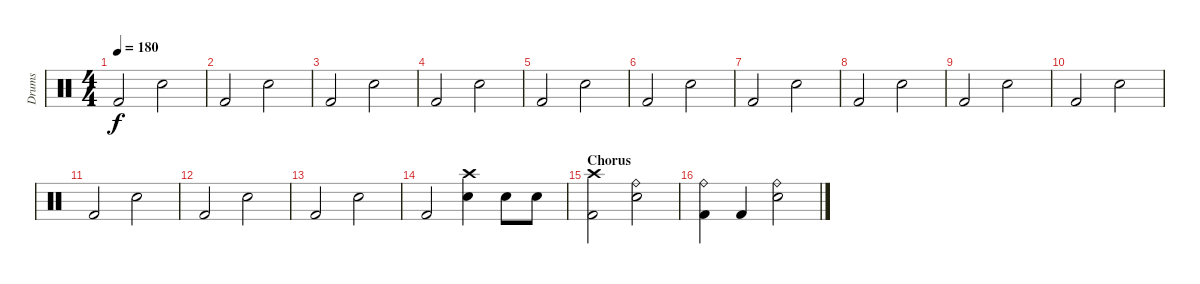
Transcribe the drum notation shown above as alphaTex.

\track ("Drums" "Drums") {instrument percussion}
\staff {score}
\articulation defaults
\ts (4 4)
\tempo 180
\clef neutral
\ks c "Kick (hit) 2".2{dy f} "Snare (hit) 2".2
|
"Kick (hit) 2".2 "Snare (hit) 2".2 |
"Kick (hit) 2".2 "Snare (hit) 2".2 |
"Kick (hit) 2".2 "Snare (hit) 2".2 |
"Kick (hit) 2".2 "Snare (hit) 2".2 |
"Kick (hit) 2".2 "Snare (hit) 2".2 |
"Kick (hit) 2".2 "Snare (hit) 2".2 |
"Kick (hit) 2".2 "Snare (hit) 2".2 |
"Kick (hit) 2".2 "Snare (hit) 2".2 |
"Kick (hit) 2".2 "Snare (hit) 2".2 |
"Kick (hit) 2".2 "Snare (hit) 2".2 |
"Kick (hit) 2".2 "Snare (hit) 2".2 |
"Kick (hit) 2".2 "Snare (hit) 2".2 |
"Kick (hit) 2".2 ("Crash high (hit)" "Snare (hit) 2").4 "Snare (hit) 2".8 "Snare (hit) 2".8 |
\section ("" "Chorus")
("Crash high (hit)" "Kick (hit) 2").2 ("Ride (bell)" "Snare (hit) 2").2 |
("Ride (bell)" "Kick (hit) 2").4 "Kick (hit) 2".4 ("Ride (bell)" "Snare (hit) 2").2
